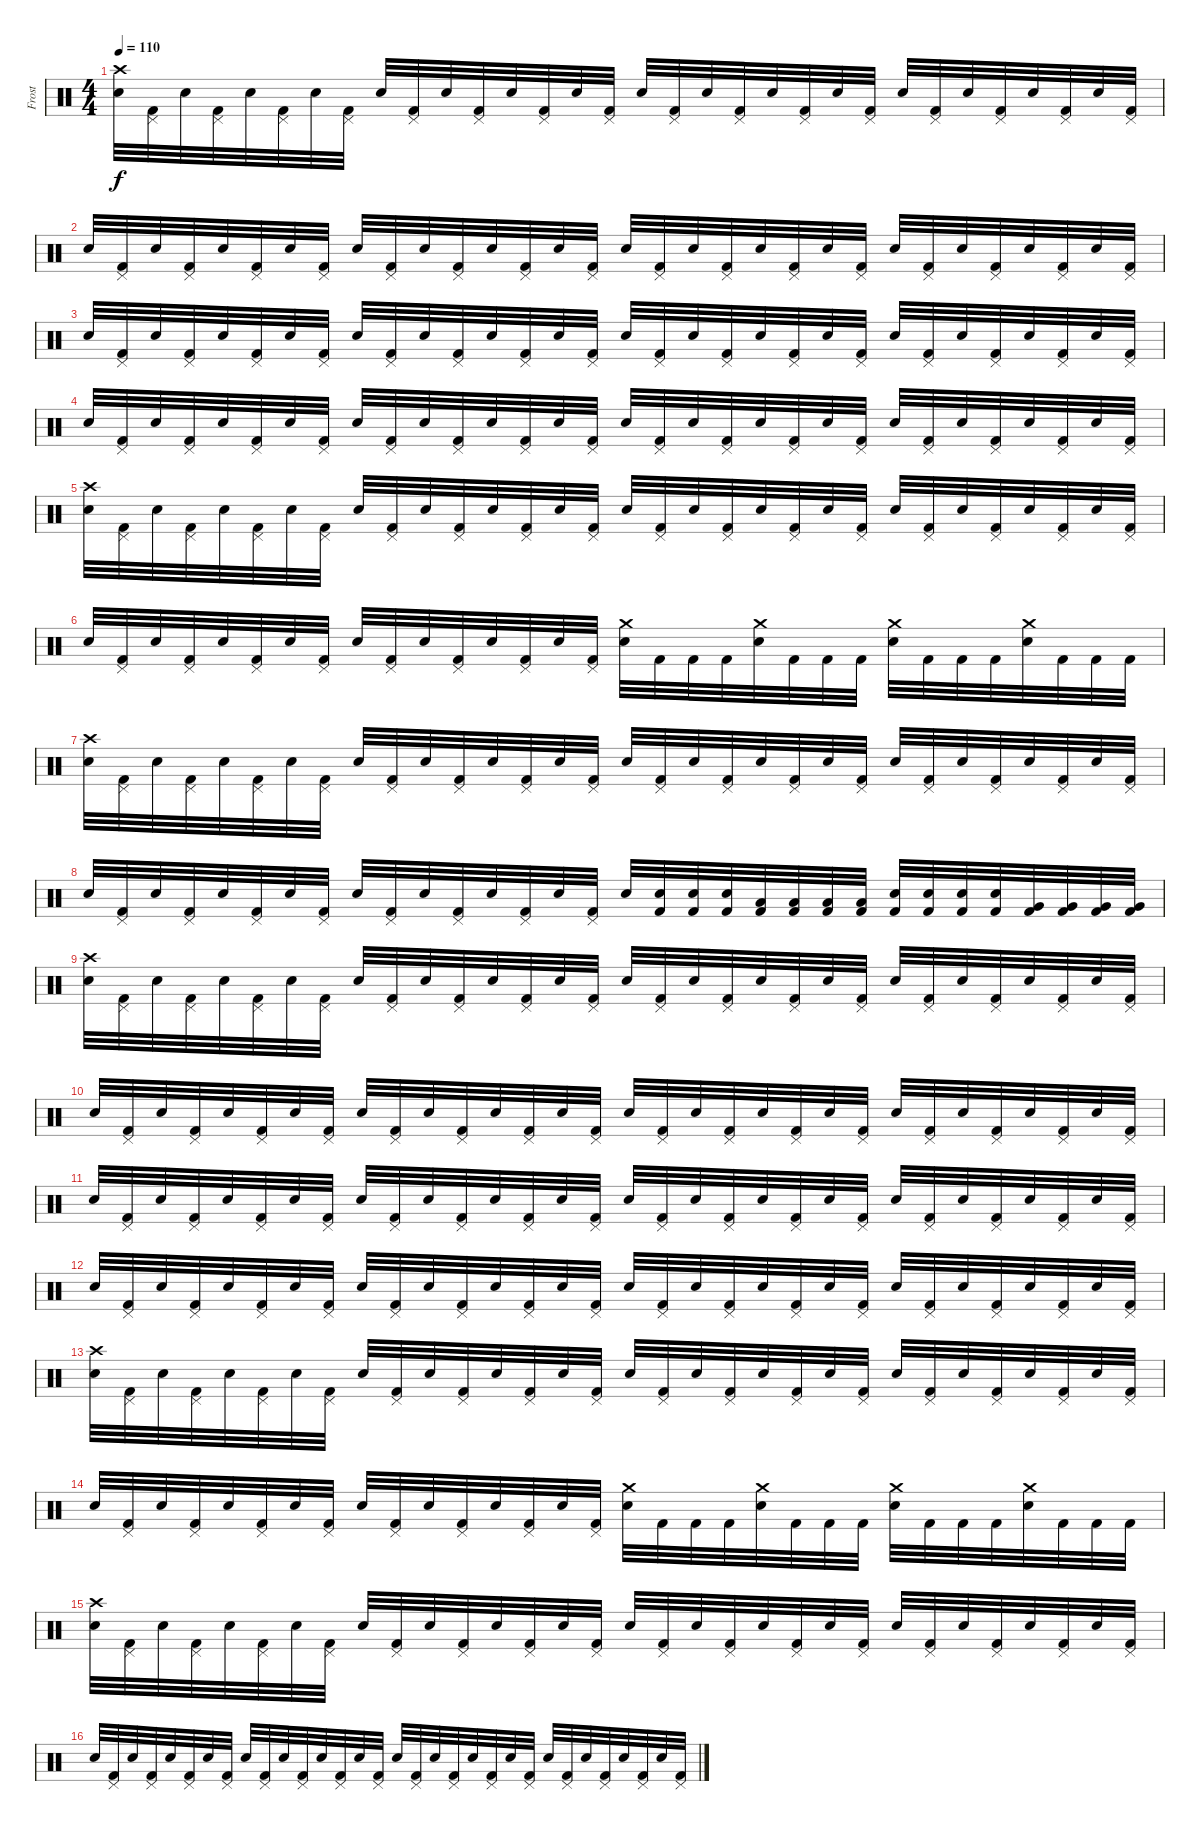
\track ("Frost" "Frost") {instrument percussion}
\staff {score}
\articulation defaults
\ts (4 4)
\tempo 110
\clef neutral
\ks c
("Crash high (hit)" "Snare (hit) 2").32{dy f} ("Pedal Hi-Hat (hit)" "Kick (hit) 2").32 "Snare (hit) 2".32 ("Pedal Hi-Hat (hit)" "Kick (hit) 2").32 "Snare (hit) 2".32 ("Pedal Hi-Hat (hit)" "Kick (hit) 2").32 "Snare (hit) 2".32 ("Pedal Hi-Hat (hit)" "Kick (hit) 2").32 "Snare (hit) 2".32 ("Pedal Hi-Hat (hit)" "Kick (hit) 2").32 "Snare (hit) 2".32 ("Pedal Hi-Hat (hit)" "Kick (hit) 2").32 "Snare (hit) 2".32 ("Pedal Hi-Hat (hit)" "Kick (hit) 2").32 "Snare (hit) 2".32 ("Pedal Hi-Hat (hit)" "Kick (hit) 2").32 "Snare (hit) 2".32 ("Pedal Hi-Hat (hit)" "Kick (hit) 2").32 "Snare (hit) 2".32 ("Pedal Hi-Hat (hit)" "Kick (hit) 2").32 "Snare (hit) 2".32 ("Pedal Hi-Hat (hit)" "Kick (hit) 2").32 "Snare (hit) 2".32 ("Pedal Hi-Hat (hit)" "Kick (hit) 2").32 "Snare (hit) 2".32 ("Pedal Hi-Hat (hit)" "Kick (hit) 2").32 "Snare (hit) 2".32 ("Pedal Hi-Hat (hit)" "Kick (hit) 2").32 "Snare (hit) 2".32 ("Pedal Hi-Hat (hit)" "Kick (hit) 2").32 "Snare (hit) 2".32 ("Pedal Hi-Hat (hit)" "Kick (hit) 2").32 |
"Snare (hit) 2".32 ("Pedal Hi-Hat (hit)" "Kick (hit) 2").32 "Snare (hit) 2".32 ("Pedal Hi-Hat (hit)" "Kick (hit) 2").32 "Snare (hit) 2".32 ("Pedal Hi-Hat (hit)" "Kick (hit) 2").32 "Snare (hit) 2".32 ("Pedal Hi-Hat (hit)" "Kick (hit) 2").32 "Snare (hit) 2".32 ("Pedal Hi-Hat (hit)" "Kick (hit) 2").32 "Snare (hit) 2".32 ("Pedal Hi-Hat (hit)" "Kick (hit) 2").32 "Snare (hit) 2".32 ("Pedal Hi-Hat (hit)" "Kick (hit) 2").32 "Snare (hit) 2".32 ("Pedal Hi-Hat (hit)" "Kick (hit) 2").32 "Snare (hit) 2".32 ("Pedal Hi-Hat (hit)" "Kick (hit) 2").32 "Snare (hit) 2".32 ("Pedal Hi-Hat (hit)" "Kick (hit) 2").32 "Snare (hit) 2".32 ("Pedal Hi-Hat (hit)" "Kick (hit) 2").32 "Snare (hit) 2".32 ("Pedal Hi-Hat (hit)" "Kick (hit) 2").32 "Snare (hit) 2".32 ("Pedal Hi-Hat (hit)" "Kick (hit) 2").32 "Snare (hit) 2".32 ("Pedal Hi-Hat (hit)" "Kick (hit) 2").32 "Snare (hit) 2".32 ("Pedal Hi-Hat (hit)" "Kick (hit) 2").32 "Snare (hit) 2".32 ("Pedal Hi-Hat (hit)" "Kick (hit) 2").32 |
"Snare (hit) 2".32 ("Pedal Hi-Hat (hit)" "Kick (hit) 2").32 "Snare (hit) 2".32 ("Pedal Hi-Hat (hit)" "Kick (hit) 2").32 "Snare (hit) 2".32 ("Pedal Hi-Hat (hit)" "Kick (hit) 2").32 "Snare (hit) 2".32 ("Pedal Hi-Hat (hit)" "Kick (hit) 2").32 "Snare (hit) 2".32 ("Pedal Hi-Hat (hit)" "Kick (hit) 2").32 "Snare (hit) 2".32 ("Pedal Hi-Hat (hit)" "Kick (hit) 2").32 "Snare (hit) 2".32 ("Pedal Hi-Hat (hit)" "Kick (hit) 2").32 "Snare (hit) 2".32 ("Pedal Hi-Hat (hit)" "Kick (hit) 2").32 "Snare (hit) 2".32 ("Pedal Hi-Hat (hit)" "Kick (hit) 2").32 "Snare (hit) 2".32 ("Pedal Hi-Hat (hit)" "Kick (hit) 2").32 "Snare (hit) 2".32 ("Pedal Hi-Hat (hit)" "Kick (hit) 2").32 "Snare (hit) 2".32 ("Pedal Hi-Hat (hit)" "Kick (hit) 2").32 "Snare (hit) 2".32 ("Pedal Hi-Hat (hit)" "Kick (hit) 2").32 "Snare (hit) 2".32 ("Pedal Hi-Hat (hit)" "Kick (hit) 2").32 "Snare (hit) 2".32 ("Pedal Hi-Hat (hit)" "Kick (hit) 2").32 "Snare (hit) 2".32 ("Pedal Hi-Hat (hit)" "Kick (hit) 2").32 |
"Snare (hit) 2".32 ("Pedal Hi-Hat (hit)" "Kick (hit) 2").32 "Snare (hit) 2".32 ("Pedal Hi-Hat (hit)" "Kick (hit) 2").32 "Snare (hit) 2".32 ("Pedal Hi-Hat (hit)" "Kick (hit) 2").32 "Snare (hit) 2".32 ("Pedal Hi-Hat (hit)" "Kick (hit) 2").32 "Snare (hit) 2".32 ("Pedal Hi-Hat (hit)" "Kick (hit) 2").32 "Snare (hit) 2".32 ("Pedal Hi-Hat (hit)" "Kick (hit) 2").32 "Snare (hit) 2".32 ("Pedal Hi-Hat (hit)" "Kick (hit) 2").32 "Snare (hit) 2".32 ("Pedal Hi-Hat (hit)" "Kick (hit) 2").32 "Snare (hit) 2".32 ("Pedal Hi-Hat (hit)" "Kick (hit) 2").32 "Snare (hit) 2".32 ("Pedal Hi-Hat (hit)" "Kick (hit) 2").32 "Snare (hit) 2".32 ("Pedal Hi-Hat (hit)" "Kick (hit) 2").32 "Snare (hit) 2".32 ("Pedal Hi-Hat (hit)" "Kick (hit) 2").32 "Snare (hit) 2".32 ("Pedal Hi-Hat (hit)" "Kick (hit) 2").32 "Snare (hit) 2".32 ("Pedal Hi-Hat (hit)" "Kick (hit) 2").32 "Snare (hit) 2".32 ("Pedal Hi-Hat (hit)" "Kick (hit) 2").32 "Snare (hit) 2".32 ("Pedal Hi-Hat (hit)" "Kick (hit) 2").32 |
("Crash high (hit)" "Snare (hit) 2").32 ("Pedal Hi-Hat (hit)" "Kick (hit) 2").32 "Snare (hit) 2".32 ("Pedal Hi-Hat (hit)" "Kick (hit) 2").32 "Snare (hit) 2".32 ("Pedal Hi-Hat (hit)" "Kick (hit) 2").32 "Snare (hit) 2".32 ("Pedal Hi-Hat (hit)" "Kick (hit) 2").32 "Snare (hit) 2".32 ("Pedal Hi-Hat (hit)" "Kick (hit) 2").32 "Snare (hit) 2".32 ("Pedal Hi-Hat (hit)" "Kick (hit) 2").32 "Snare (hit) 2".32 ("Pedal Hi-Hat (hit)" "Kick (hit) 2").32 "Snare (hit) 2".32 ("Pedal Hi-Hat (hit)" "Kick (hit) 2").32 "Snare (hit) 2".32 ("Pedal Hi-Hat (hit)" "Kick (hit) 2").32 "Snare (hit) 2".32 ("Pedal Hi-Hat (hit)" "Kick (hit) 2").32 "Snare (hit) 2".32 ("Pedal Hi-Hat (hit)" "Kick (hit) 2").32 "Snare (hit) 2".32 ("Pedal Hi-Hat (hit)" "Kick (hit) 2").32 "Snare (hit) 2".32 ("Pedal Hi-Hat (hit)" "Kick (hit) 2").32 "Snare (hit) 2".32 ("Pedal Hi-Hat (hit)" "Kick (hit) 2").32 "Snare (hit) 2".32 ("Pedal Hi-Hat (hit)" "Kick (hit) 2").32 "Snare (hit) 2".32 ("Pedal Hi-Hat (hit)" "Kick (hit) 2").32 |
"Snare (hit) 2".32 ("Pedal Hi-Hat (hit)" "Kick (hit) 2").32 "Snare (hit) 2".32 ("Pedal Hi-Hat (hit)" "Kick (hit) 2").32 "Snare (hit) 2".32 ("Pedal Hi-Hat (hit)" "Kick (hit) 2").32 "Snare (hit) 2".32 ("Pedal Hi-Hat (hit)" "Kick (hit) 2").32 "Snare (hit) 2".32 ("Pedal Hi-Hat (hit)" "Kick (hit) 2").32 "Snare (hit) 2".32 ("Pedal Hi-Hat (hit)" "Kick (hit) 2").32 "Snare (hit) 2".32 ("Pedal Hi-Hat (hit)" "Kick (hit) 2").32 "Snare (hit) 2".32 ("Pedal Hi-Hat (hit)" "Kick (hit) 2").32 ("Crash medium (hit)" "Snare (hit) 2").32 "Kick (hit) 2".32 "Kick (hit) 2".32 "Kick (hit) 2".32 ("Crash medium (hit)" "Snare (hit) 2").32 "Kick (hit) 2".32 "Kick (hit) 2".32 "Kick (hit) 2".32 ("Crash medium (hit)" "Snare (hit) 2").32 "Kick (hit) 2".32 "Kick (hit) 2".32 "Kick (hit) 2".32 ("Crash medium (hit)" "Snare (hit) 2").32 "Kick (hit) 2".32 "Kick (hit) 2".32 "Kick (hit) 2".32 |
("Crash high (hit)" "Snare (hit) 2").32 ("Pedal Hi-Hat (hit)" "Kick (hit) 2").32 "Snare (hit) 2".32 ("Pedal Hi-Hat (hit)" "Kick (hit) 2").32 "Snare (hit) 2".32 ("Pedal Hi-Hat (hit)" "Kick (hit) 2").32 "Snare (hit) 2".32 ("Pedal Hi-Hat (hit)" "Kick (hit) 2").32 "Snare (hit) 2".32 ("Pedal Hi-Hat (hit)" "Kick (hit) 2").32 "Snare (hit) 2".32 ("Pedal Hi-Hat (hit)" "Kick (hit) 2").32 "Snare (hit) 2".32 ("Pedal Hi-Hat (hit)" "Kick (hit) 2").32 "Snare (hit) 2".32 ("Pedal Hi-Hat (hit)" "Kick (hit) 2").32 "Snare (hit) 2".32 ("Pedal Hi-Hat (hit)" "Kick (hit) 2").32 "Snare (hit) 2".32 ("Pedal Hi-Hat (hit)" "Kick (hit) 2").32 "Snare (hit) 2".32 ("Pedal Hi-Hat (hit)" "Kick (hit) 2").32 "Snare (hit) 2".32 ("Pedal Hi-Hat (hit)" "Kick (hit) 2").32 "Snare (hit) 2".32 ("Pedal Hi-Hat (hit)" "Kick (hit) 2").32 "Snare (hit) 2".32 ("Pedal Hi-Hat (hit)" "Kick (hit) 2").32 "Snare (hit) 2".32 ("Pedal Hi-Hat (hit)" "Kick (hit) 2").32 "Snare (hit) 2".32 ("Pedal Hi-Hat (hit)" "Kick (hit) 2").32 |
"Snare (hit) 2".32 ("Pedal Hi-Hat (hit)" "Kick (hit) 2").32 "Snare (hit) 2".32 ("Pedal Hi-Hat (hit)" "Kick (hit) 2").32 "Snare (hit) 2".32 ("Pedal Hi-Hat (hit)" "Kick (hit) 2").32 "Snare (hit) 2".32 ("Pedal Hi-Hat (hit)" "Kick (hit) 2").32 "Snare (hit) 2".32 ("Pedal Hi-Hat (hit)" "Kick (hit) 2").32 "Snare (hit) 2".32 ("Pedal Hi-Hat (hit)" "Kick (hit) 2").32 "Snare (hit) 2".32 ("Pedal Hi-Hat (hit)" "Kick (hit) 2").32 "Snare (hit) 2".32 ("Pedal Hi-Hat (hit)" "Kick (hit) 2").32 "Snare (hit) 2".32 ("Snare (hit) 2" "Kick (hit) 2").32 ("Snare (hit) 2" "Kick (hit) 2").32 ("Snare (hit) 2" "Kick (hit) 2").32 ("Low Tom (hit)" "Kick (hit) 2").32 ("Low Tom (hit)" "Kick (hit) 2").32 ("Low Tom (hit)" "Kick (hit) 2").32 ("Low Tom (hit)" "Kick (hit) 2").32 ("Snare (hit) 2" "Kick (hit) 2").32 ("Snare (hit) 2" "Kick (hit) 2").32 ("Snare (hit) 2" "Kick (hit) 2").32 ("Snare (hit) 2" "Kick (hit) 2").32 ("Very Low Tom (hit)" "Kick (hit) 2").32 ("Very Low Tom (hit)" "Kick (hit) 2").32 ("Very Low Tom (hit)" "Kick (hit) 2").32 ("Very Low Tom (hit)" "Kick (hit) 2").32 |
("Crash high (hit)" "Snare (hit) 2").32 ("Pedal Hi-Hat (hit)" "Kick (hit) 2").32 "Snare (hit) 2".32 ("Pedal Hi-Hat (hit)" "Kick (hit) 2").32 "Snare (hit) 2".32 ("Pedal Hi-Hat (hit)" "Kick (hit) 2").32 "Snare (hit) 2".32 ("Pedal Hi-Hat (hit)" "Kick (hit) 2").32 "Snare (hit) 2".32 ("Pedal Hi-Hat (hit)" "Kick (hit) 2").32 "Snare (hit) 2".32 ("Pedal Hi-Hat (hit)" "Kick (hit) 2").32 "Snare (hit) 2".32 ("Pedal Hi-Hat (hit)" "Kick (hit) 2").32 "Snare (hit) 2".32 ("Pedal Hi-Hat (hit)" "Kick (hit) 2").32 "Snare (hit) 2".32 ("Pedal Hi-Hat (hit)" "Kick (hit) 2").32 "Snare (hit) 2".32 ("Pedal Hi-Hat (hit)" "Kick (hit) 2").32 "Snare (hit) 2".32 ("Pedal Hi-Hat (hit)" "Kick (hit) 2").32 "Snare (hit) 2".32 ("Pedal Hi-Hat (hit)" "Kick (hit) 2").32 "Snare (hit) 2".32 ("Pedal Hi-Hat (hit)" "Kick (hit) 2").32 "Snare (hit) 2".32 ("Pedal Hi-Hat (hit)" "Kick (hit) 2").32 "Snare (hit) 2".32 ("Pedal Hi-Hat (hit)" "Kick (hit) 2").32 "Snare (hit) 2".32 ("Pedal Hi-Hat (hit)" "Kick (hit) 2").32 |
"Snare (hit) 2".32 ("Pedal Hi-Hat (hit)" "Kick (hit) 2").32 "Snare (hit) 2".32 ("Pedal Hi-Hat (hit)" "Kick (hit) 2").32 "Snare (hit) 2".32 ("Pedal Hi-Hat (hit)" "Kick (hit) 2").32 "Snare (hit) 2".32 ("Pedal Hi-Hat (hit)" "Kick (hit) 2").32 "Snare (hit) 2".32 ("Pedal Hi-Hat (hit)" "Kick (hit) 2").32 "Snare (hit) 2".32 ("Pedal Hi-Hat (hit)" "Kick (hit) 2").32 "Snare (hit) 2".32 ("Pedal Hi-Hat (hit)" "Kick (hit) 2").32 "Snare (hit) 2".32 ("Pedal Hi-Hat (hit)" "Kick (hit) 2").32 "Snare (hit) 2".32 ("Pedal Hi-Hat (hit)" "Kick (hit) 2").32 "Snare (hit) 2".32 ("Pedal Hi-Hat (hit)" "Kick (hit) 2").32 "Snare (hit) 2".32 ("Pedal Hi-Hat (hit)" "Kick (hit) 2").32 "Snare (hit) 2".32 ("Pedal Hi-Hat (hit)" "Kick (hit) 2").32 "Snare (hit) 2".32 ("Pedal Hi-Hat (hit)" "Kick (hit) 2").32 "Snare (hit) 2".32 ("Pedal Hi-Hat (hit)" "Kick (hit) 2").32 "Snare (hit) 2".32 ("Pedal Hi-Hat (hit)" "Kick (hit) 2").32 "Snare (hit) 2".32 ("Pedal Hi-Hat (hit)" "Kick (hit) 2").32 |
"Snare (hit) 2".32 ("Pedal Hi-Hat (hit)" "Kick (hit) 2").32 "Snare (hit) 2".32 ("Pedal Hi-Hat (hit)" "Kick (hit) 2").32 "Snare (hit) 2".32 ("Pedal Hi-Hat (hit)" "Kick (hit) 2").32 "Snare (hit) 2".32 ("Pedal Hi-Hat (hit)" "Kick (hit) 2").32 "Snare (hit) 2".32 ("Pedal Hi-Hat (hit)" "Kick (hit) 2").32 "Snare (hit) 2".32 ("Pedal Hi-Hat (hit)" "Kick (hit) 2").32 "Snare (hit) 2".32 ("Pedal Hi-Hat (hit)" "Kick (hit) 2").32 "Snare (hit) 2".32 ("Pedal Hi-Hat (hit)" "Kick (hit) 2").32 "Snare (hit) 2".32 ("Pedal Hi-Hat (hit)" "Kick (hit) 2").32 "Snare (hit) 2".32 ("Pedal Hi-Hat (hit)" "Kick (hit) 2").32 "Snare (hit) 2".32 ("Pedal Hi-Hat (hit)" "Kick (hit) 2").32 "Snare (hit) 2".32 ("Pedal Hi-Hat (hit)" "Kick (hit) 2").32 "Snare (hit) 2".32 ("Pedal Hi-Hat (hit)" "Kick (hit) 2").32 "Snare (hit) 2".32 ("Pedal Hi-Hat (hit)" "Kick (hit) 2").32 "Snare (hit) 2".32 ("Pedal Hi-Hat (hit)" "Kick (hit) 2").32 "Snare (hit) 2".32 ("Pedal Hi-Hat (hit)" "Kick (hit) 2").32 |
"Snare (hit) 2".32 ("Pedal Hi-Hat (hit)" "Kick (hit) 2").32 "Snare (hit) 2".32 ("Pedal Hi-Hat (hit)" "Kick (hit) 2").32 "Snare (hit) 2".32 ("Pedal Hi-Hat (hit)" "Kick (hit) 2").32 "Snare (hit) 2".32 ("Pedal Hi-Hat (hit)" "Kick (hit) 2").32 "Snare (hit) 2".32 ("Pedal Hi-Hat (hit)" "Kick (hit) 2").32 "Snare (hit) 2".32 ("Pedal Hi-Hat (hit)" "Kick (hit) 2").32 "Snare (hit) 2".32 ("Pedal Hi-Hat (hit)" "Kick (hit) 2").32 "Snare (hit) 2".32 ("Pedal Hi-Hat (hit)" "Kick (hit) 2").32 "Snare (hit) 2".32 ("Pedal Hi-Hat (hit)" "Kick (hit) 2").32 "Snare (hit) 2".32 ("Pedal Hi-Hat (hit)" "Kick (hit) 2").32 "Snare (hit) 2".32 ("Pedal Hi-Hat (hit)" "Kick (hit) 2").32 "Snare (hit) 2".32 ("Pedal Hi-Hat (hit)" "Kick (hit) 2").32 "Snare (hit) 2".32 ("Pedal Hi-Hat (hit)" "Kick (hit) 2").32 "Snare (hit) 2".32 ("Pedal Hi-Hat (hit)" "Kick (hit) 2").32 "Snare (hit) 2".32 ("Pedal Hi-Hat (hit)" "Kick (hit) 2").32 "Snare (hit) 2".32 ("Pedal Hi-Hat (hit)" "Kick (hit) 2").32 |
("Crash high (hit)" "Snare (hit) 2").32 ("Pedal Hi-Hat (hit)" "Kick (hit) 2").32 "Snare (hit) 2".32 ("Pedal Hi-Hat (hit)" "Kick (hit) 2").32 "Snare (hit) 2".32 ("Pedal Hi-Hat (hit)" "Kick (hit) 2").32 "Snare (hit) 2".32 ("Pedal Hi-Hat (hit)" "Kick (hit) 2").32 "Snare (hit) 2".32 ("Pedal Hi-Hat (hit)" "Kick (hit) 2").32 "Snare (hit) 2".32 ("Pedal Hi-Hat (hit)" "Kick (hit) 2").32 "Snare (hit) 2".32 ("Pedal Hi-Hat (hit)" "Kick (hit) 2").32 "Snare (hit) 2".32 ("Pedal Hi-Hat (hit)" "Kick (hit) 2").32 "Snare (hit) 2".32 ("Pedal Hi-Hat (hit)" "Kick (hit) 2").32 "Snare (hit) 2".32 ("Pedal Hi-Hat (hit)" "Kick (hit) 2").32 "Snare (hit) 2".32 ("Pedal Hi-Hat (hit)" "Kick (hit) 2").32 "Snare (hit) 2".32 ("Pedal Hi-Hat (hit)" "Kick (hit) 2").32 "Snare (hit) 2".32 ("Pedal Hi-Hat (hit)" "Kick (hit) 2").32 "Snare (hit) 2".32 ("Pedal Hi-Hat (hit)" "Kick (hit) 2").32 "Snare (hit) 2".32 ("Pedal Hi-Hat (hit)" "Kick (hit) 2").32 "Snare (hit) 2".32 ("Pedal Hi-Hat (hit)" "Kick (hit) 2").32 |
"Snare (hit) 2".32 ("Pedal Hi-Hat (hit)" "Kick (hit) 2").32 "Snare (hit) 2".32 ("Pedal Hi-Hat (hit)" "Kick (hit) 2").32 "Snare (hit) 2".32 ("Pedal Hi-Hat (hit)" "Kick (hit) 2").32 "Snare (hit) 2".32 ("Pedal Hi-Hat (hit)" "Kick (hit) 2").32 "Snare (hit) 2".32 ("Pedal Hi-Hat (hit)" "Kick (hit) 2").32 "Snare (hit) 2".32 ("Pedal Hi-Hat (hit)" "Kick (hit) 2").32 "Snare (hit) 2".32 ("Pedal Hi-Hat (hit)" "Kick (hit) 2").32 "Snare (hit) 2".32 ("Pedal Hi-Hat (hit)" "Kick (hit) 2").32 ("Crash medium (hit)" "Snare (hit) 2").32 "Kick (hit) 2".32 "Kick (hit) 2".32 "Kick (hit) 2".32 ("Crash medium (hit)" "Snare (hit) 2").32 "Kick (hit) 2".32 "Kick (hit) 2".32 "Kick (hit) 2".32 ("Crash medium (hit)" "Snare (hit) 2").32 "Kick (hit) 2".32 "Kick (hit) 2".32 "Kick (hit) 2".32 ("Crash medium (hit)" "Snare (hit) 2").32 "Kick (hit) 2".32 "Kick (hit) 2".32 "Kick (hit) 2".32 |
("Crash high (hit)" "Snare (hit) 2").32 ("Pedal Hi-Hat (hit)" "Kick (hit) 2").32 "Snare (hit) 2".32 ("Pedal Hi-Hat (hit)" "Kick (hit) 2").32 "Snare (hit) 2".32 ("Pedal Hi-Hat (hit)" "Kick (hit) 2").32 "Snare (hit) 2".32 ("Pedal Hi-Hat (hit)" "Kick (hit) 2").32 "Snare (hit) 2".32 ("Pedal Hi-Hat (hit)" "Kick (hit) 2").32 "Snare (hit) 2".32 ("Pedal Hi-Hat (hit)" "Kick (hit) 2").32 "Snare (hit) 2".32 ("Pedal Hi-Hat (hit)" "Kick (hit) 2").32 "Snare (hit) 2".32 ("Pedal Hi-Hat (hit)" "Kick (hit) 2").32 "Snare (hit) 2".32 ("Pedal Hi-Hat (hit)" "Kick (hit) 2").32 "Snare (hit) 2".32 ("Pedal Hi-Hat (hit)" "Kick (hit) 2").32 "Snare (hit) 2".32 ("Pedal Hi-Hat (hit)" "Kick (hit) 2").32 "Snare (hit) 2".32 ("Pedal Hi-Hat (hit)" "Kick (hit) 2").32 "Snare (hit) 2".32 ("Pedal Hi-Hat (hit)" "Kick (hit) 2").32 "Snare (hit) 2".32 ("Pedal Hi-Hat (hit)" "Kick (hit) 2").32 "Snare (hit) 2".32 ("Pedal Hi-Hat (hit)" "Kick (hit) 2").32 "Snare (hit) 2".32 ("Pedal Hi-Hat (hit)" "Kick (hit) 2").32 |
"Snare (hit) 2".32 ("Pedal Hi-Hat (hit)" "Kick (hit) 2").32 "Snare (hit) 2".32 ("Pedal Hi-Hat (hit)" "Kick (hit) 2").32 "Snare (hit) 2".32 ("Pedal Hi-Hat (hit)" "Kick (hit) 2").32 "Snare (hit) 2".32 ("Pedal Hi-Hat (hit)" "Kick (hit) 2").32 "Snare (hit) 2".32 ("Pedal Hi-Hat (hit)" "Kick (hit) 2").32 "Snare (hit) 2".32 ("Pedal Hi-Hat (hit)" "Kick (hit) 2").32 "Snare (hit) 2".32 ("Pedal Hi-Hat (hit)" "Kick (hit) 2").32 "Snare (hit) 2".32 ("Pedal Hi-Hat (hit)" "Kick (hit) 2").32 "Snare (hit) 2".32 ("Pedal Hi-Hat (hit)" "Kick (hit) 2").32 "Snare (hit) 2".32 ("Pedal Hi-Hat (hit)" "Kick (hit) 2").32 "Snare (hit) 2".32 ("Pedal Hi-Hat (hit)" "Kick (hit) 2").32 "Snare (hit) 2".32 ("Pedal Hi-Hat (hit)" "Kick (hit) 2").32 "Snare (hit) 2".32 ("Pedal Hi-Hat (hit)" "Kick (hit) 2").32 "Snare (hit) 2".32 ("Pedal Hi-Hat (hit)" "Kick (hit) 2").32 "Snare (hit) 2".32 ("Pedal Hi-Hat (hit)" "Kick (hit) 2").32 "Snare (hit) 2".32 ("Pedal Hi-Hat (hit)" "Kick (hit) 2").32
